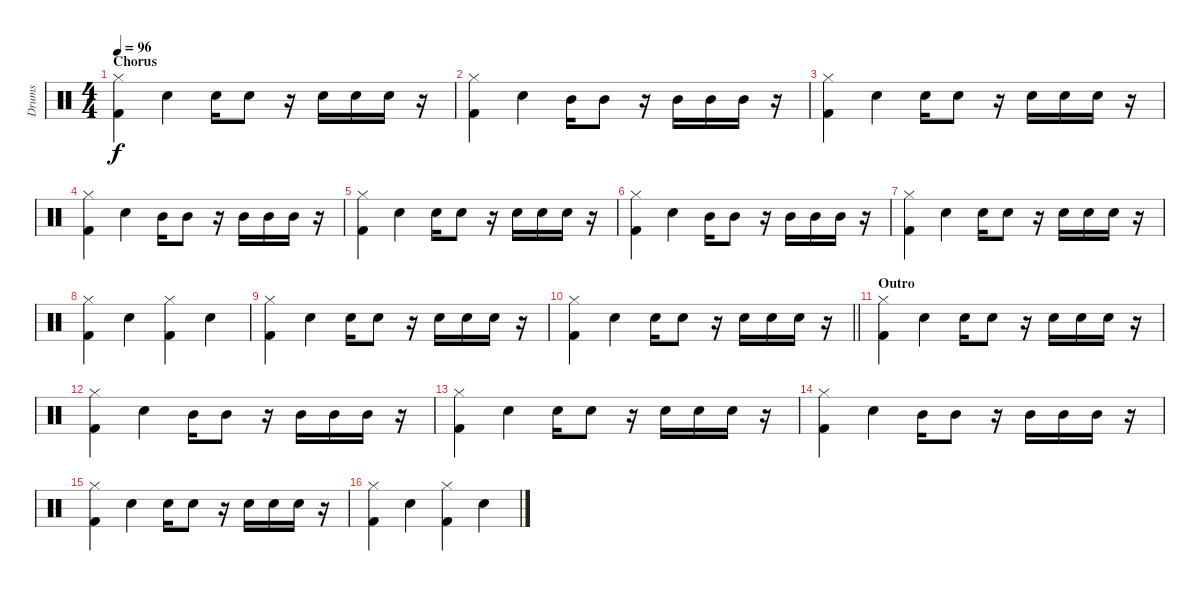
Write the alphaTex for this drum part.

\track ("Drums" "Drums") {instrument percussion}
\staff {score}
\articulation defaults
\ts (4 4)
\section ("" "Chorus")
\tempo 96
\clef neutral
\ks c
("Hi-Hat (closed)" "Kick (hit) 2").4{dy f} "Snare (hit) 2".4 "Snare (hit) 2".16 "Snare (hit) 2".8 r.16 "Snare (hit) 2".16 "Snare (hit) 2".16 "Snare (hit) 2".16 r.16 |
("Hi-Hat (closed)" "Kick (hit) 2").4 "Snare (hit) 2".4 "Mid Tom (hit)".16 "Mid Tom (hit)".8 r.16 "Mid Tom (hit)".16 "Mid Tom (hit)".16 "Mid Tom (hit)".16 r.16 |
("Hi-Hat (closed)" "Kick (hit) 2").4 "Snare (hit) 2".4 "Snare (hit) 2".16 "Snare (hit) 2".8 r.16 "Snare (hit) 2".16 "Snare (hit) 2".16 "Snare (hit) 2".16 r.16 |
("Hi-Hat (closed)" "Kick (hit) 2").4 "Snare (hit) 2".4 "Mid Tom (hit)".16 "Mid Tom (hit)".8 r.16 "Mid Tom (hit)".16 "Mid Tom (hit)".16 "Mid Tom (hit)".16 r.16 |
("Hi-Hat (closed)" "Kick (hit) 2").4 "Snare (hit) 2".4 "Snare (hit) 2".16 "Snare (hit) 2".8 r.16 "Snare (hit) 2".16 "Snare (hit) 2".16 "Snare (hit) 2".16 r.16 |
("Hi-Hat (closed)" "Kick (hit) 2").4 "Snare (hit) 2".4 "Mid Tom (hit)".16 "Mid Tom (hit)".8 r.16 "Mid Tom (hit)".16 "Mid Tom (hit)".16 "Mid Tom (hit)".16 r.16 |
("Hi-Hat (closed)" "Kick (hit) 2").4 "Snare (hit) 2".4 "Snare (hit) 2".16 "Snare (hit) 2".8 r.16 "Snare (hit) 2".16 "Snare (hit) 2".16 "Snare (hit) 2".16 r.16 |
("Hi-Hat (closed)" "Kick (hit) 2").4 "Snare (hit) 2".4 ("Hi-Hat (closed)" "Kick (hit) 2").4 "Snare (hit) 2".4 |
("Hi-Hat (closed)" "Kick (hit) 2").4 "Snare (hit) 2".4 "Snare (hit) 2".16 "Snare (hit) 2".8 r.16 "Snare (hit) 2".16 "Snare (hit) 2".16 "Snare (hit) 2".16 r.16 |
\barLineRight lightlight
("Hi-Hat (closed)" "Kick (hit) 2").4 "Snare (hit) 2".4 "Snare (hit) 2".16 "Snare (hit) 2".8 r.16 "Snare (hit) 2".16 "Snare (hit) 2".16 "Snare (hit) 2".16 r.16 |
\section ("" "Outro")
("Hi-Hat (closed)" "Kick (hit) 2").4 "Snare (hit) 2".4 "Snare (hit) 2".16 "Snare (hit) 2".8 r.16 "Snare (hit) 2".16 "Snare (hit) 2".16 "Snare (hit) 2".16 r.16 |
("Hi-Hat (closed)" "Kick (hit) 2").4 "Snare (hit) 2".4 "Mid Tom (hit)".16 "Mid Tom (hit)".8 r.16 "Mid Tom (hit)".16 "Mid Tom (hit)".16 "Mid Tom (hit)".16 r.16 |
("Hi-Hat (closed)" "Kick (hit) 2").4 "Snare (hit) 2".4 "Snare (hit) 2".16 "Snare (hit) 2".8 r.16 "Snare (hit) 2".16 "Snare (hit) 2".16 "Snare (hit) 2".16 r.16 |
("Hi-Hat (closed)" "Kick (hit) 2").4 "Snare (hit) 2".4 "Mid Tom (hit)".16 "Mid Tom (hit)".8 r.16 "Mid Tom (hit)".16 "Mid Tom (hit)".16 "Mid Tom (hit)".16 r.16 |
("Hi-Hat (closed)" "Kick (hit) 2").4 "Snare (hit) 2".4 "Snare (hit) 2".16 "Snare (hit) 2".8 r.16 "Snare (hit) 2".16 "Snare (hit) 2".16 "Snare (hit) 2".16 r.16 |
("Hi-Hat (closed)" "Kick (hit) 2").4 "Snare (hit) 2".4 ("Hi-Hat (closed)" "Kick (hit) 2").4 "Snare (hit) 2".4
